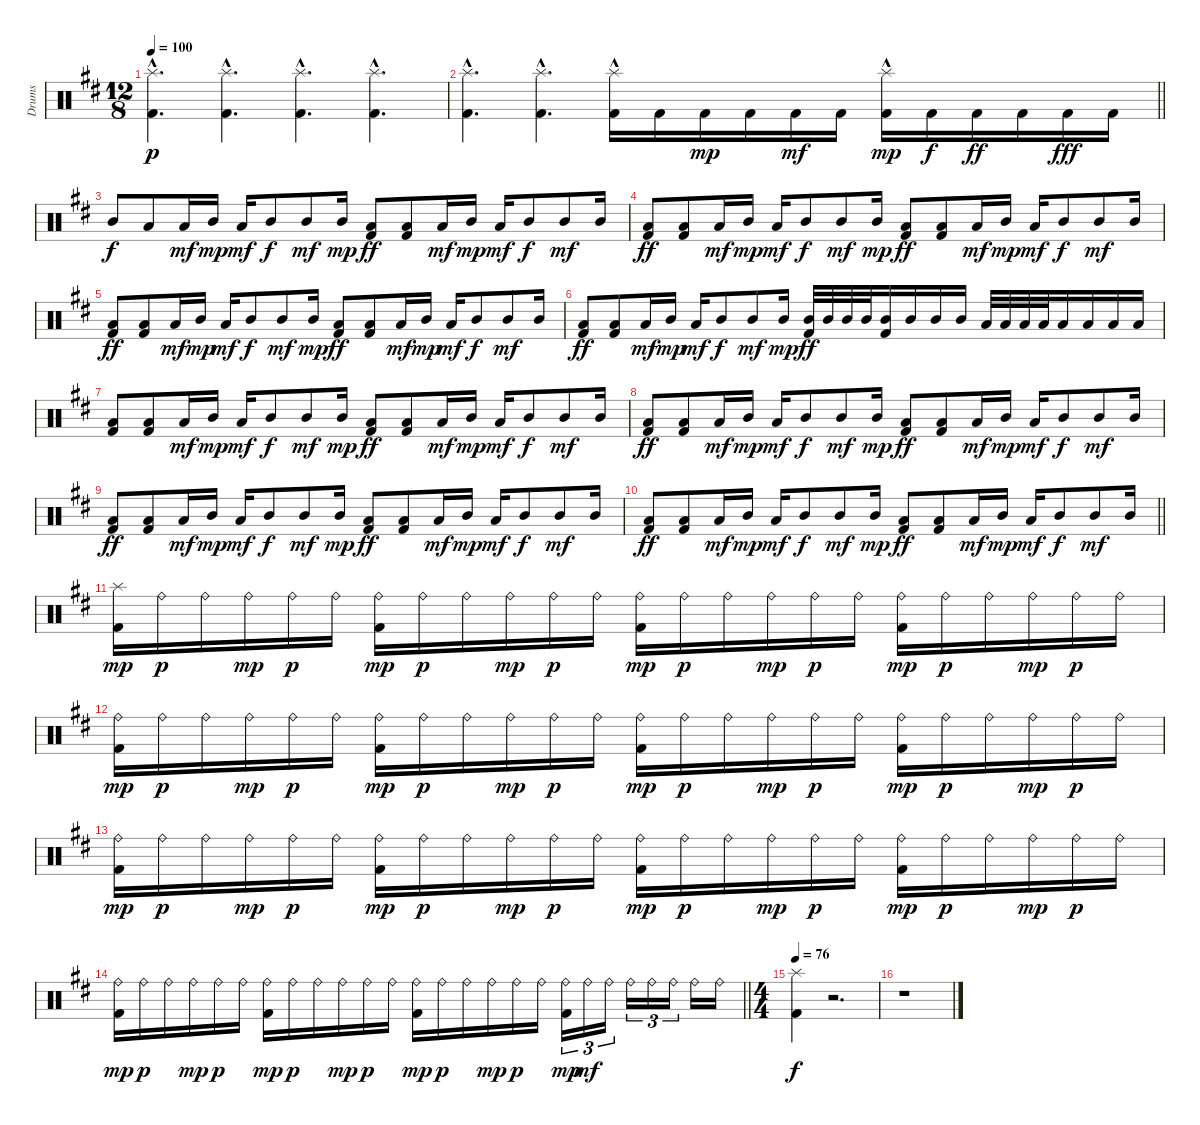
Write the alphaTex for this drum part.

\track ("Drums" "Drums") {instrument percussion}
\staff {score}
\articulation defaults
\ts (12 8)
\tempo 100
\clef neutral
\ks bminor
("Splash (hit)"{hac} "Kick (hit) 2"{hac}).4{d dy p} ("Splash (hit)"{hac} "Kick (hit) 2"{hac}).4{d} ("Splash (hit)"{hac} "Kick (hit) 2"{hac}).4{d} ("Splash (hit)"{hac} "Kick (hit) 2"{hac}).4{d} |
\barLineRight lightlight
("Splash (hit)"{hac} "Kick (hit) 2"{hac}).4{d} ("Splash (hit)"{hac} "Kick (hit) 2"{hac}).4{d} ("Splash (hit)"{hac} "Kick (hit) 2").16 "Kick (hit) 2".16 "Kick (hit) 2".16{dy mp} "Kick (hit) 2".16 "Kick (hit) 2".16{dy mf} "Kick (hit) 2".16 ("Splash (hit)"{hac} "Kick (hit) 2").16{dy mp} "Kick (hit) 2".16{dy f} "Kick (hit) 2".16{dy ff} "Kick (hit) 2".16 "Kick (hit) 2".16{dy fff} "Kick (hit) 2".16 |
"Mid Tom (hit)".8{dy f} "Low Tom (hit)".8 "Low Tom (hit)".16{dy mf} "Mid Tom (hit)".16{dy mp} "Low Tom (hit)".16{dy mf} "Mid Tom (hit)".8{dy f} "Mid Tom (hit)".8{dy mf} "Mid Tom (hit)".16{dy mp} ("Low Tom (hit)" "Kick (hit) 2").8{dy ff} ("Low Tom (hit)" "Kick (hit) 2").8 "Low Tom (hit)".16{dy mf} "Mid Tom (hit)".16{dy mp} "Low Tom (hit)".16{dy mf} "Mid Tom (hit)".8{dy f} "Mid Tom (hit)".8{dy mf} "Mid Tom (hit)".16 |
("Low Tom (hit)" "Kick (hit) 2").8{dy ff} ("Low Tom (hit)" "Kick (hit) 2").8 "Low Tom (hit)".16{dy mf} "Mid Tom (hit)".16{dy mp} "Low Tom (hit)".16{dy mf} "Mid Tom (hit)".8{dy f} "Mid Tom (hit)".8{dy mf} "Mid Tom (hit)".16{dy mp} ("Low Tom (hit)" "Kick (hit) 2").8{dy ff} ("Low Tom (hit)" "Kick (hit) 2").8 "Low Tom (hit)".16{dy mf} "Mid Tom (hit)".16{dy mp} "Low Tom (hit)".16{dy mf} "Mid Tom (hit)".8{dy f} "Mid Tom (hit)".8{dy mf} "Mid Tom (hit)".16 |
("Low Tom (hit)" "Kick (hit) 2").8{dy ff} ("Low Tom (hit)" "Kick (hit) 2").8 "Low Tom (hit)".16{dy mf} "Mid Tom (hit)".16{dy mp} "Low Tom (hit)".16{dy mf} "Mid Tom (hit)".8{dy f} "Mid Tom (hit)".8{dy mf} "Mid Tom (hit)".16{dy mp} ("Low Tom (hit)" "Kick (hit) 2").8{dy ff} ("Low Tom (hit)" "Kick (hit) 2").8 "Low Tom (hit)".16{dy mf} "Mid Tom (hit)".16{dy mp} "Low Tom (hit)".16{dy mf} "Mid Tom (hit)".8{dy f} "Mid Tom (hit)".8{dy mf} "Mid Tom (hit)".16 |
("Low Tom (hit)" "Kick (hit) 2").8{dy ff} ("Low Tom (hit)" "Kick (hit) 2").8 "Low Tom (hit)".16{dy mf} "Mid Tom (hit)".16{dy mp} "Low Tom (hit)".16{dy mf} "Mid Tom (hit)".8{dy f} "Mid Tom (hit)".8{dy mf} "Mid Tom (hit)".16{dy mp} ("Mid Tom (hit)" "Kick (hit) 2").32{dy ff} "Mid Tom (hit)".32 "Mid Tom (hit)".32 "Mid Tom (hit)".32 ("Mid Tom (hit)" "Kick (hit) 2").16 "Mid Tom (hit)".16 "Mid Tom (hit)".16 "Mid Tom (hit)".16 "Low Tom (hit)".32 "Low Tom (hit)".32 "Low Tom (hit)".32 "Low Tom (hit)".32 "Low Tom (hit)".16 "Low Tom (hit)".16 "Low Tom (hit)".16 "Low Tom (hit)".16 |
("Low Tom (hit)" "Kick (hit) 2").8 ("Low Tom (hit)" "Kick (hit) 2").8 "Low Tom (hit)".16{dy mf} "Mid Tom (hit)".16{dy mp} "Low Tom (hit)".16{dy mf} "Mid Tom (hit)".8{dy f} "Mid Tom (hit)".8{dy mf} "Mid Tom (hit)".16{dy mp} ("Low Tom (hit)" "Kick (hit) 2").8{dy ff} ("Low Tom (hit)" "Kick (hit) 2").8 "Low Tom (hit)".16{dy mf} "Mid Tom (hit)".16{dy mp} "Low Tom (hit)".16{dy mf} "Mid Tom (hit)".8{dy f} "Mid Tom (hit)".8{dy mf} "Mid Tom (hit)".16 |
("Low Tom (hit)" "Kick (hit) 2").8{dy ff} ("Low Tom (hit)" "Kick (hit) 2").8 "Low Tom (hit)".16{dy mf} "Mid Tom (hit)".16{dy mp} "Low Tom (hit)".16{dy mf} "Mid Tom (hit)".8{dy f} "Mid Tom (hit)".8{dy mf} "Mid Tom (hit)".16{dy mp} ("Low Tom (hit)" "Kick (hit) 2").8{dy ff} ("Low Tom (hit)" "Kick (hit) 2").8 "Low Tom (hit)".16{dy mf} "Mid Tom (hit)".16{dy mp} "Low Tom (hit)".16{dy mf} "Mid Tom (hit)".8{dy f} "Mid Tom (hit)".8{dy mf} "Mid Tom (hit)".16 |
("Low Tom (hit)" "Kick (hit) 2").8{dy ff} ("Low Tom (hit)" "Kick (hit) 2").8 "Low Tom (hit)".16{dy mf} "Mid Tom (hit)".16{dy mp} "Low Tom (hit)".16{dy mf} "Mid Tom (hit)".8{dy f} "Mid Tom (hit)".8{dy mf} "Mid Tom (hit)".16{dy mp} ("Low Tom (hit)" "Kick (hit) 2").8{dy ff} ("Low Tom (hit)" "Kick (hit) 2").8 "Low Tom (hit)".16{dy mf} "Mid Tom (hit)".16{dy mp} "Low Tom (hit)".16{dy mf} "Mid Tom (hit)".8{dy f} "Mid Tom (hit)".8{dy mf} "Mid Tom (hit)".16 |
\barLineRight lightlight
("Low Tom (hit)" "Kick (hit) 2").8{dy ff} ("Low Tom (hit)" "Kick (hit) 2").8 "Low Tom (hit)".16{dy mf} "Mid Tom (hit)".16{dy mp} "Low Tom (hit)".16{dy mf} "Mid Tom (hit)".8{dy f} "Mid Tom (hit)".8{dy mf} "Mid Tom (hit)".16{dy mp} ("Low Tom (hit)" "Kick (hit) 2").8{dy ff} ("Low Tom (hit)" "Kick (hit) 2").8 "Low Tom (hit)".16{dy mf} "Mid Tom (hit)".16{dy mp} "Low Tom (hit)".16{dy mf} "Mid Tom (hit)".8{dy f} "Mid Tom (hit)".8{dy mf} "Mid Tom (hit)".16 |
("Splash (hit)" "Kick (hit) 2").16{dy mp} "Ride (bell)".16{dy p} "Ride (bell)".16 "Ride (bell)".16{dy mp} "Ride (bell)".16{dy p} "Ride (bell)".16 ("Ride (bell)" "Kick (hit) 2").16{dy mp} "Ride (bell)".16{dy p} "Ride (bell)".16 "Ride (bell)".16{dy mp} "Ride (bell)".16{dy p} "Ride (bell)".16 ("Ride (bell)" "Kick (hit) 2").16{dy mp} "Ride (bell)".16{dy p} "Ride (bell)".16 "Ride (bell)".16{dy mp} "Ride (bell)".16{dy p} "Ride (bell)".16 ("Ride (bell)" "Kick (hit) 2").16{dy mp} "Ride (bell)".16{dy p} "Ride (bell)".16 "Ride (bell)".16{dy mp} "Ride (bell)".16{dy p} "Ride (bell)".16 |
("Ride (bell)" "Kick (hit) 2").16{dy mp} "Ride (bell)".16{dy p} "Ride (bell)".16 "Ride (bell)".16{dy mp} "Ride (bell)".16{dy p} "Ride (bell)".16 ("Ride (bell)" "Kick (hit) 2").16{dy mp} "Ride (bell)".16{dy p} "Ride (bell)".16 "Ride (bell)".16{dy mp} "Ride (bell)".16{dy p} "Ride (bell)".16 ("Ride (bell)" "Kick (hit) 2").16{dy mp} "Ride (bell)".16{dy p} "Ride (bell)".16 "Ride (bell)".16{dy mp} "Ride (bell)".16{dy p} "Ride (bell)".16 ("Ride (bell)" "Kick (hit) 2").16{dy mp} "Ride (bell)".16{dy p} "Ride (bell)".16 "Ride (bell)".16{dy mp} "Ride (bell)".16{dy p} "Ride (bell)".16 |
("Ride (bell)" "Kick (hit) 2").16{dy mp} "Ride (bell)".16{dy p} "Ride (bell)".16 "Ride (bell)".16{dy mp} "Ride (bell)".16{dy p} "Ride (bell)".16 ("Ride (bell)" "Kick (hit) 2").16{dy mp} "Ride (bell)".16{dy p} "Ride (bell)".16 "Ride (bell)".16{dy mp} "Ride (bell)".16{dy p} "Ride (bell)".16 ("Ride (bell)" "Kick (hit) 2").16{dy mp} "Ride (bell)".16{dy p} "Ride (bell)".16 "Ride (bell)".16{dy mp} "Ride (bell)".16{dy p} "Ride (bell)".16 ("Ride (bell)" "Kick (hit) 2").16{dy mp} "Ride (bell)".16{dy p} "Ride (bell)".16 "Ride (bell)".16{dy mp} "Ride (bell)".16{dy p} "Ride (bell)".16 |
\barLineRight lightlight
("Ride (bell)" "Kick (hit) 2").16{dy mp} "Ride (bell)".16{dy p} "Ride (bell)".16 "Ride (bell)".16{dy mp} "Ride (bell)".16{dy p} "Ride (bell)".16 ("Ride (bell)" "Kick (hit) 2").16{dy mp} "Ride (bell)".16{dy p} "Ride (bell)".16 "Ride (bell)".16{dy mp} "Ride (bell)".16{dy p} "Ride (bell)".16 ("Ride (bell)" "Kick (hit) 2").16{dy mp} "Ride (bell)".16{dy p} "Ride (bell)".16 "Ride (bell)".16{dy mp} "Ride (bell)".16{dy p} "Ride (bell)".16 ("Ride (bell)" "Kick (hit) 2").16{tu (3 2) dy mp} "Ride (bell)".16{tu (3 2) dy mf} "Ride (bell)".16{tu (3 2)} "Ride (bell)".16{tu (3 2)} "Ride (bell)".16{tu (3 2)} "Ride (bell)".16{tu (3 2)} "Ride (bell)".16 "Ride (bell)".16 |
\ts (4 4)
\tempo 76
("Splash (hit)" "Kick (hit) 2").4{dy f} r.2{d} |
r.1
